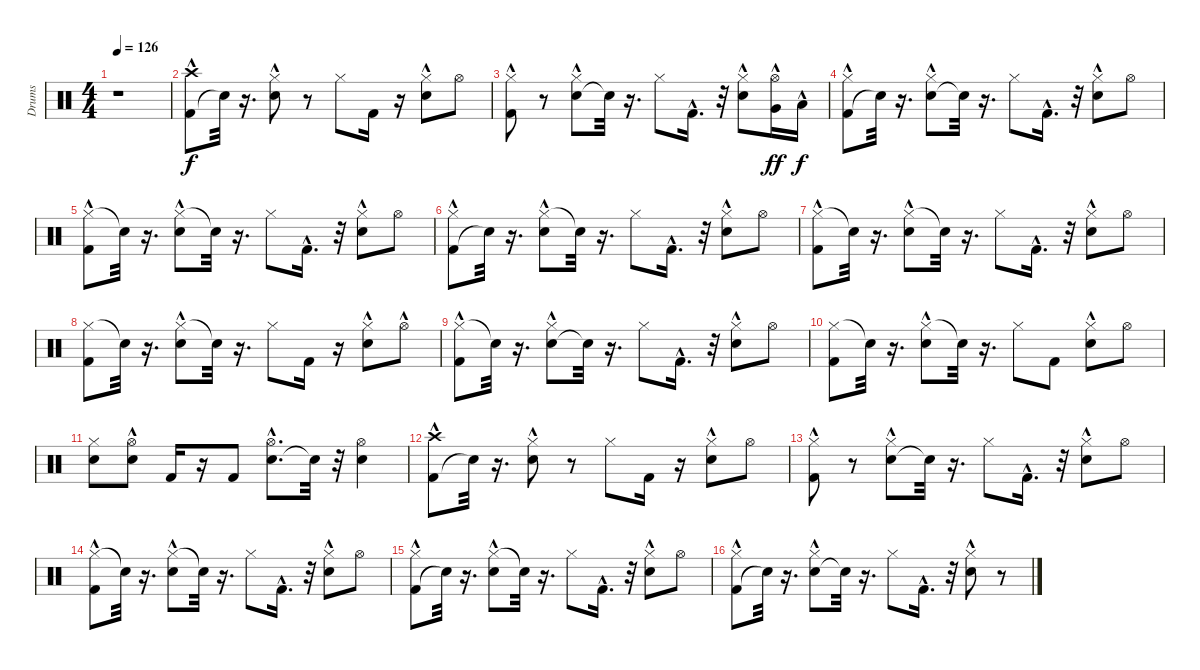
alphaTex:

\track ("Drums" "Drums") {instrument percussion}
\staff {score}
\articulation defaults
\ts (4 4)
\tempo 126
\clef neutral
\ks c
r.1{dy f} |
("Kick (hit) 2"{hac} "Crash high (hit)").8 "Snare (hit)"{t}.32 r.16{d} ("Electric Snare (hit)"{hac} "Hi-Hat (closed)").8 r.8 "Hi-Hat (closed)".8 "Kick (hit) 2".16 r.16 ("Electric Snare (hit)"{hac} "Hi-Hat (closed)").8 "Hi-Hat (open)".8 |
("Hi-Hat (closed)" "Kick (hit) 2"{hac}).8 r.8 ("Electric Snare (hit)"{hac} "Hi-Hat (closed)").8 "Snare (hit)"{t}.32 r.16{d} "Hi-Hat (closed)".8 "Kick (hit) 2"{hac}.16{d} r.32 ("Electric Snare (hit)"{hac} "Hi-Hat (closed)").8 ("Hi-Hat (open)" "Very Low Tom (hit)"{hac}).16{dy ff balance 8} "Low Floor Tom (hit)"{hac}.16{dy f} |
("Kick (hit) 2"{hac} "Hi-Hat (closed)").8 "Snare (hit)"{t}.32 r.16{d} ("Electric Snare (hit)"{hac} "Hi-Hat (closed)").8 "Snare (hit)"{t}.32 r.16{d} "Hi-Hat (closed)".8 "Kick (hit) 2"{hac}.16{d} r.32 ("Electric Snare (hit)"{hac} "Hi-Hat (closed)").8 "Hi-Hat (open)".8 |
("Hi-Hat (closed)" "Kick (hit) 2"{hac}).8 "Snare (hit)"{t}.32 r.16{d} ("Hi-Hat (closed)" "Electric Snare (hit)"{hac}).8 "Snare (hit)"{t}.32 r.16{d} "Hi-Hat (closed)".8 "Kick (hit) 2"{hac}.16{d} r.32 ("Hi-Hat (closed)" "Electric Snare (hit)"{hac}).8 "Hi-Hat (open)".8 |
("Kick (hit) 2"{hac} "Hi-Hat (closed)").8 "Snare (hit)"{t}.32 r.16{d} ("Hi-Hat (closed)" "Electric Snare (hit)"{hac}).8 "Snare (hit)"{t}.32 r.16{d} "Hi-Hat (closed)".8 "Kick (hit) 2"{hac}.16{d} r.32 ("Electric Snare (hit)"{hac} "Hi-Hat (closed)").8 "Hi-Hat (open)".8 |
("Hi-Hat (closed)" "Kick (hit) 2"{hac}).8 "Snare (hit)"{t}.32 r.16{d} ("Hi-Hat (closed)" "Electric Snare (hit)"{hac}).8 "Snare (hit)"{t}.32 r.16{d} "Hi-Hat (closed)".8 "Kick (hit) 2"{hac}.16{d} r.32 ("Hi-Hat (closed)" "Electric Snare (hit)"{hac}).8 "Hi-Hat (open)".8 |
("Hi-Hat (closed)" "Kick (hit) 2").8 "Snare (hit)"{t}.32 r.16{d} ("Hi-Hat (closed)" "Electric Snare (hit)"{hac}).8 "Snare (hit)"{t}.32 r.16{d} "Hi-Hat (closed)".8 "Kick (hit) 2".16 r.16 ("Hi-Hat (closed)" "Electric Snare (hit)"{hac}).8 "Hi-Hat (open)"{hac}.8 |
("Hi-Hat (closed)" "Kick (hit) 2"{hac}).8 "Snare (hit)"{t}.32 r.16{d} ("Electric Snare (hit)"{hac} "Hi-Hat (closed)").8 "Snare (hit)"{t}.32 r.16{d} "Hi-Hat (closed)".8 "Kick (hit) 2"{hac}.16{d} r.32 ("Electric Snare (hit)"{hac} "Hi-Hat (closed)").8 "Hi-Hat (open)".8 |
("Hi-Hat (closed)" "Kick (hit) 2").8 "Snare (hit)"{t}.32 r.16{d} ("Hi-Hat (closed)" "Electric Snare (hit)"{hac}).8 "Snare (hit)"{t}.32 r.16{d} "Hi-Hat (closed)".8 "Kick (hit) 2".8 ("Hi-Hat (closed)" "Electric Snare (hit)"{hac}).8 "Hi-Hat (open)".8 |
("Electric Snare (hit)" "Hi-Hat (closed)").8 ("Hi-Hat (open)" "Electric Snare (hit)"{hac}).8 "Kick (hit) 2".16 r.16 "Kick (hit) 2".8 ("Electric Snare (hit)" "Hi-Hat (open)"{hac}).8{d} "Snare (hit)"{t}.32 r.32 ("Hi-Hat (open)" "Electric Snare (hit)").4 |
("Kick (hit) 2"{hac} "Crash high (hit)").8 "Snare (hit)"{t}.32 r.16{d} ("Electric Snare (hit)"{hac} "Hi-Hat (closed)").8 r.8 "Hi-Hat (closed)".8 "Kick (hit) 2".16 r.16 ("Hi-Hat (closed)" "Electric Snare (hit)"{hac}).8 "Hi-Hat (open)".8 |
("Hi-Hat (closed)" "Kick (hit) 2"{hac}).8 r.8 ("Electric Snare (hit)"{hac} "Hi-Hat (closed)").8 "Snare (hit)"{t}.32 r.16{d} "Hi-Hat (closed)".8 "Kick (hit) 2"{hac}.16{d} r.32 ("Hi-Hat (closed)" "Electric Snare (hit)"{hac}).8 "Hi-Hat (open)".8 |
("Hi-Hat (closed)" "Kick (hit) 2"{hac}).8 "Snare (hit)"{t}.32 r.16{d} ("Hi-Hat (closed)" "Electric Snare (hit)"{hac}).8 "Snare (hit)"{t}.32 r.16{d} "Hi-Hat (closed)".8 "Kick (hit) 2"{hac}.16{d} r.32 ("Electric Snare (hit)"{hac} "Hi-Hat (closed)").8 "Hi-Hat (open)".8 |
("Kick (hit) 2"{hac} "Hi-Hat (closed)").8 "Snare (hit)"{t}.32 r.16{d} ("Hi-Hat (closed)" "Electric Snare (hit)"{hac}).8 "Snare (hit)"{t}.32 r.16{d} "Hi-Hat (closed)".8 "Kick (hit) 2"{hac}.16{d} r.32 ("Electric Snare (hit)"{hac} "Hi-Hat (closed)").8 "Hi-Hat (open)".8 |
("Kick (hit) 2"{hac} "Hi-Hat (closed)").8 "Snare (hit)"{t}.32 r.16{d} ("Electric Snare (hit)"{hac} "Hi-Hat (closed)").8 "Snare (hit)"{t}.32 r.16{d} "Hi-Hat (closed)".8 "Kick (hit) 2"{hac}.16{d} r.32 ("Electric Snare (hit)"{hac} "Hi-Hat (closed)").8 r.8
